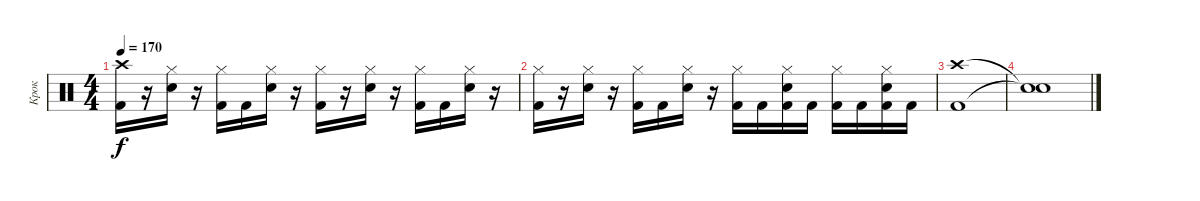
\track ("Крок" "Крок") {instrument percussion}
\staff {score}
\articulation defaults
\ts (4 4)
\tempo 170
\clef neutral
\ks aminor
("Kick (hit) 2" "Crash high (hit)").16{dy f} r.16 ("Electric Snare (hit)" "Hi-Hat (closed)").16 r.16 ("Kick (hit) 2" "Hi-Hat (closed)").16 "Kick (hit) 2".16 ("Electric Snare (hit)" "Hi-Hat (closed)").16 r.16 ("Kick (hit) 2" "Hi-Hat (closed)").16 r.16 ("Electric Snare (hit)" "Hi-Hat (closed)").16 r.16 ("Kick (hit) 2" "Hi-Hat (closed)").16 "Kick (hit) 2".16 ("Electric Snare (hit)" "Hi-Hat (closed)").16 r.16 |
("Kick (hit) 2" "Hi-Hat (closed)").16 r.16 ("Electric Snare (hit)" "Hi-Hat (closed)").16 r.16 ("Kick (hit) 2" "Hi-Hat (closed)").16 "Kick (hit) 2".16 ("Electric Snare (hit)" "Hi-Hat (closed)").16 r.16 ("Kick (hit) 2" "Hi-Hat (closed)").16 "Kick (hit) 2".16 ("Kick (hit) 2" "Electric Snare (hit)" "Hi-Hat (closed)").16 "Kick (hit) 2".16 ("Kick (hit) 2" "Hi-Hat (closed)").16 "Kick (hit) 2".16 ("Kick (hit) 2" "Electric Snare (hit)" "Hi-Hat (closed)").16 "Kick (hit) 2".16 |
("Kick (hit) 2" "Crash high (hit)").1 |
("Snare (hit)"{t} "Snare (hit)"{t}).1
